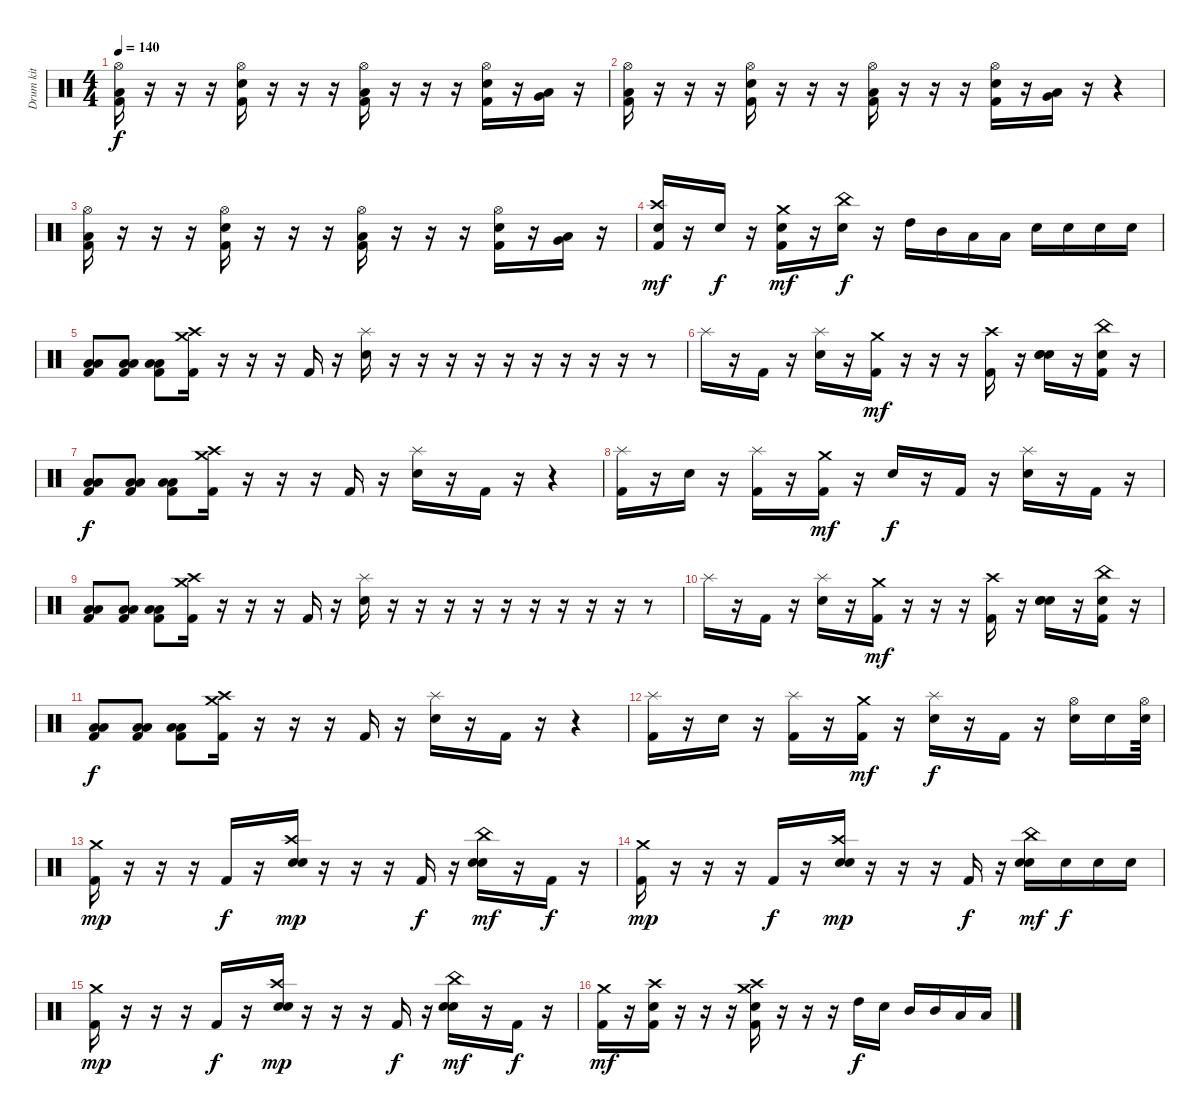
\track ("Drum kit" "Drum kit") {solo instrument percussion}
\staff {score}
\articulation defaults
\ts (4 4)
\tempo 140
\clef neutral
\ks c
("Hi-Hat (open)" "Low Tom (hit)" "Kick (hit) 2").16{dy f} r.16 r.16 r.16 ("Hi-Hat (open)" "Electric Snare (hit)" "Kick (hit) 2").16 r.16 r.16 r.16 ("Hi-Hat (open)" "Low Tom (hit)" "Kick (hit) 2").16 r.16 r.16 r.16 ("Hi-Hat (open)" "Electric Snare (hit)" "Kick (hit) 2").16 r.16 ("Low Tom (hit)" "Very Low Tom (hit)").16 r.16 |
("Hi-Hat (open)" "Low Tom (hit)" "Kick (hit) 2").16 r.16 r.16 r.16 ("Hi-Hat (open)" "Electric Snare (hit)" "Kick (hit) 2").16 r.16 r.16 r.16 ("Hi-Hat (open)" "Low Tom (hit)" "Kick (hit) 2").16 r.16 r.16 r.16 ("Hi-Hat (open)" "Electric Snare (hit)" "Kick (hit) 2").16 r.16 ("Low Tom (hit)" "Very Low Tom (hit)").16 r.16 r.4 |
("Hi-Hat (open)" "Low Tom (hit)" "Kick (hit) 2").16 r.16 r.16 r.16 ("Hi-Hat (open)" "Electric Snare (hit)" "Kick (hit) 2").16 r.16 r.16 r.16 ("Hi-Hat (open)" "Low Tom (hit)" "Kick (hit) 2").16 r.16 r.16 r.16 ("Hi-Hat (open)" "Electric Snare (hit)" "Kick (hit) 2").16 r.16 ("Low Tom (hit)" "Very Low Tom (hit)").16 r.16 |
("Crash high (hit)" "Snare (hit)" "Kick (hit) 2").16{dy mf} r.16 "Electric Snare (hit)".16{dy f} r.16 ("Crash medium (hit)" "Snare (hit)" "Kick (hit) 2").16{dy mf} r.16 ("China (hit)" "Electric Snare (hit)").16{dy f} r.16 "High Tom (hit)".16 "Mid Tom (hit)".16 "Low Tom (hit)".16 "Low Tom (hit)".16 "Electric Snare (hit)".16 "Electric Snare (hit)".16 "Electric Snare (hit)".16 "Electric Snare (hit)".16 |
("Low Tom (hit)" "Low Floor Tom (hit)" "Kick (hit) 2").8 ("Low Tom (hit)" "Low Floor Tom (hit)" "Kick (hit) 2").8 ("Low Tom (hit)" "Low Floor Tom (hit)" "Kick (hit) 2").8 ("Crash medium (hit)" "Crash high (hit)" "Kick (hit) 2").16 r.16 r.16 r.16 "Kick (hit) 2".16 r.16 ("Splash (hit)" "Electric Snare (hit)").16 r.16 r.16 r.16 r.16 r.16 r.16 r.16 r.16 r.16 r.8 |
"Splash (hit)".16 r.16 "Kick (hit) 2".16 r.16 ("Splash (hit)" "Electric Snare (hit)").16 r.16 ("Crash medium (hit)" "Kick (hit) 2").16{dy mf} r.16 r.16 r.16 ("Crash high (hit)" "Kick (hit) 2").16 r.16 ("Snare (hit)" "Electric Snare (hit)" "Snare (hit)").16 r.16 ("China (hit)" "Snare (hit)" "Kick (hit) 2").16 r.16 |
("Low Tom (hit)" "Low Floor Tom (hit)" "Kick (hit) 2").8{dy f} ("Low Tom (hit)" "Low Floor Tom (hit)" "Kick (hit) 2").8 ("Low Tom (hit)" "Low Floor Tom (hit)" "Kick (hit) 2").8 ("Crash medium (hit)" "Crash high (hit)" "Kick (hit) 2").16 r.16 r.16 r.16 "Kick (hit) 2".16 r.16 ("Splash (hit)" "Electric Snare (hit)").16 r.16 "Kick (hit) 2".16 r.16 r.4 |
("Splash (hit)" "Kick (hit) 2").16 r.16 "Electric Snare (hit)".16 r.16 ("Splash (hit)" "Kick (hit) 2").16 r.16 ("Crash medium (hit)" "Kick (hit) 2").16{dy mf} r.16 "Snare (hit)".16{dy f} r.16 "Kick (hit) 2".16 r.16 ("Splash (hit)" "Electric Snare (hit)").16 r.16 "Kick (hit) 2".16 r.16 |
("Low Tom (hit)" "Low Floor Tom (hit)" "Kick (hit) 2").8 ("Low Tom (hit)" "Low Floor Tom (hit)" "Kick (hit) 2").8 ("Low Tom (hit)" "Low Floor Tom (hit)" "Kick (hit) 2").8 ("Crash medium (hit)" "Crash high (hit)" "Kick (hit) 2").16 r.16 r.16 r.16 "Kick (hit) 2".16 r.16 ("Splash (hit)" "Electric Snare (hit)").16 r.16 r.16 r.16 r.16 r.16 r.16 r.16 r.16 r.16 r.8 |
"Splash (hit)".16 r.16 "Kick (hit) 2".16 r.16 ("Splash (hit)" "Electric Snare (hit)").16 r.16 ("Crash medium (hit)" "Kick (hit) 2").16{dy mf} r.16 r.16 r.16 ("Crash high (hit)" "Kick (hit) 2").16 r.16 ("Snare (hit)" "Electric Snare (hit)" "Snare (hit)").16 r.16 ("China (hit)" "Snare (hit)" "Kick (hit) 2").16 r.16 |
("Low Tom (hit)" "Low Floor Tom (hit)" "Kick (hit) 2").8{dy f} ("Low Tom (hit)" "Low Floor Tom (hit)" "Kick (hit) 2").8 ("Low Tom (hit)" "Low Floor Tom (hit)" "Kick (hit) 2").8 ("Crash medium (hit)" "Crash high (hit)" "Kick (hit) 2").16 r.16 r.16 r.16 "Kick (hit) 2".16 r.16 ("Splash (hit)" "Electric Snare (hit)").16 r.16 "Kick (hit) 2".16 r.16 r.4 |
("Splash (hit)" "Kick (hit) 2").16 r.16 "Electric Snare (hit)".16 r.16 ("Splash (hit)" "Kick (hit) 2").16 r.16 ("Crash medium (hit)" "Kick (hit) 2").16{dy mf} r.16 ("Splash (hit)" "Electric Snare (hit)").16{dy f} r.16 "Kick (hit) 2".16 r.16 ("Hi-Hat (open)" "Electric Snare (hit)").16 "Snare (hit)".16 ("Hi-Hat (open)" "Electric Snare (hit)").64 |
("Crash medium (hit)" "Kick (hit) 2").16{dy mp} r.16 r.16 r.16 "Kick (hit) 2".16{dy f} r.16 ("Crash high (hit)" "Electric Snare (hit)" "Snare (hit)").16{dy mp} r.16 r.16 r.16 "Kick (hit) 2".16{dy f} r.16 ("China (hit)" "Electric Snare (hit)" "Snare (hit)").16{dy mf} r.16 "Kick (hit) 2".16{dy f} r.16 |
("Crash medium (hit)" "Kick (hit) 2").16{dy mp} r.16 r.16 r.16 "Kick (hit) 2".16{dy f} r.16 ("Crash high (hit)" "Electric Snare (hit)" "Snare (hit)").16{dy mp} r.16 r.16 r.16 "Kick (hit) 2".16{dy f} r.16 ("China (hit)" "Electric Snare (hit)" "Snare (hit)").16{dy mf} "Electric Snare (hit)".16{dy f} "Electric Snare (hit)".16 "Snare (hit)".16 |
("Crash medium (hit)" "Kick (hit) 2").16{dy mp} r.16 r.16 r.16 "Kick (hit) 2".16{dy f} r.16 ("Crash high (hit)" "Electric Snare (hit)" "Snare (hit)").16{dy mp} r.16 r.16 r.16 "Kick (hit) 2".16{dy f} r.16 ("China (hit)" "Electric Snare (hit)" "Snare (hit)").16{dy mf} r.16 "Kick (hit) 2".16{dy f} r.16 |
("Crash medium (hit)" "Kick (hit) 2").16{dy mf} r.16 ("Crash high (hit)" "Electric Snare (hit)" "Kick (hit) 2").16 r.16 r.16 r.16 ("Crash medium (hit)" "Crash high (hit)" "Snare (hit)" "Kick (hit) 2").16 r.16 r.16 r.16 "High Tom (hit)".16{dy f} "Snare (hit)".16 "Mid Tom (hit)".16 "Mid Tom (hit)".16 "Low Tom (hit)".16 "Low Tom (hit)".16
